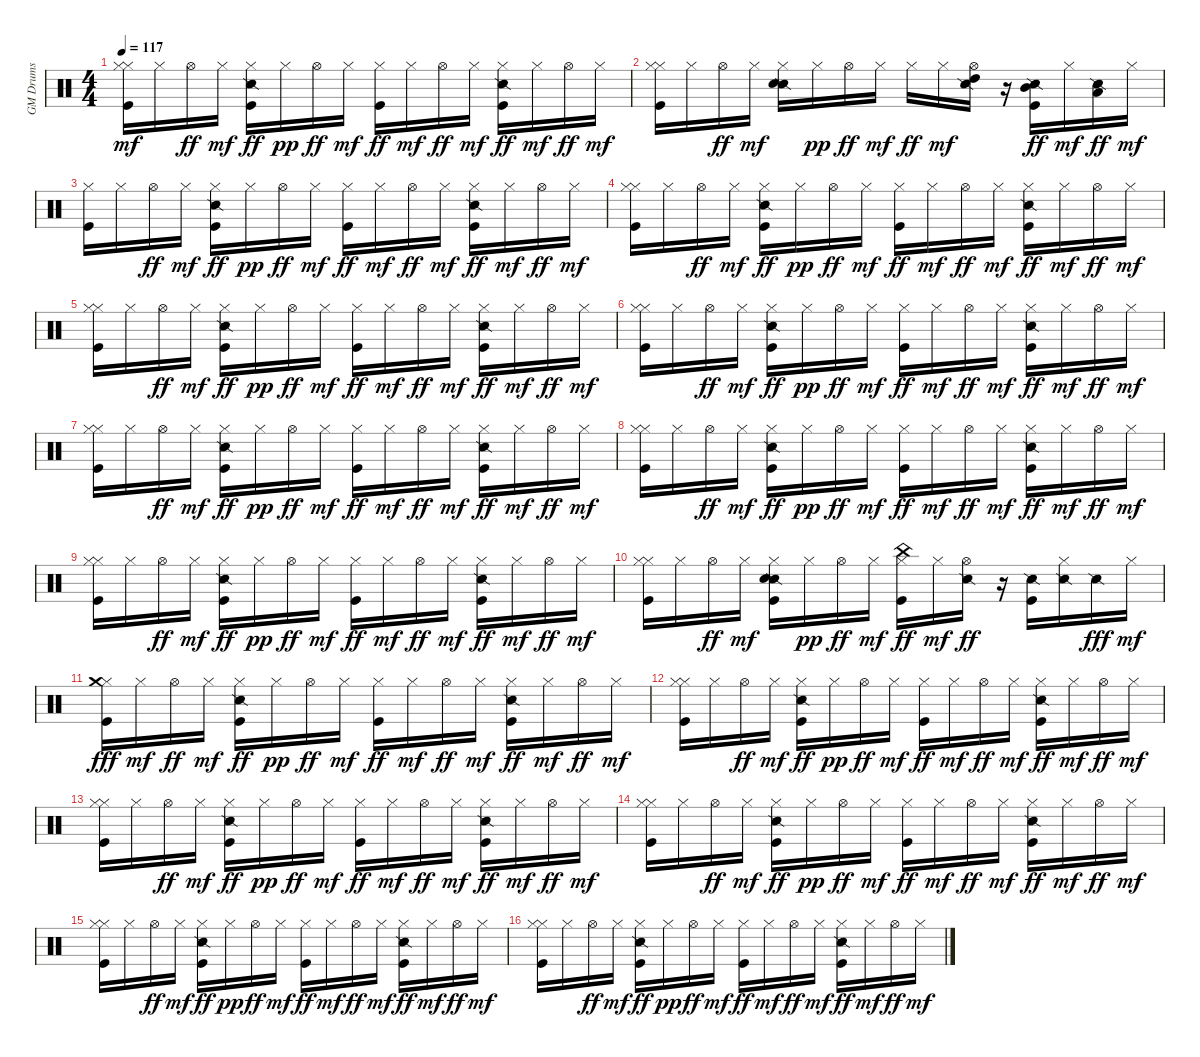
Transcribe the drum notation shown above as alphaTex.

\track ("GM Drums" "GM Drums") {instrument percussion}
\staff {score}
\articulation defaults
\ts (4 4)
\tempo 117
\clef neutral
\ks c
("Hi-Hat (closed)" "Kick (hit)" "Hi-Hat (closed)").16{dy mf} "Hi-Hat (closed)".16 "Hi-Hat (open)".16{dy ff} "Hi-Hat (closed)".16{dy mf} ("Kick (hit)" "Hi-Hat (closed)" "Snare (side stick) 2").16{dy ff} "Hi-Hat (closed)".16{dy pp} "Hi-Hat (open)".16{dy ff} "Hi-Hat (closed)".16{dy mf} ("Kick (hit)" "Hi-Hat (closed)").16{dy ff} "Hi-Hat (closed)".16{dy mf} "Hi-Hat (open)".16{dy ff} "Hi-Hat (closed)".16{dy mf} ("Kick (hit)" "Hi-Hat (closed)" "Snare (side stick) 2").16{dy ff} "Hi-Hat (closed)".16{dy mf} "Hi-Hat (open)".16{dy ff} "Hi-Hat (closed)".16{dy mf} |
("Hi-Hat (closed)" "Kick (hit)" "Hi-Hat (closed)").16 "Hi-Hat (closed)".16 "Hi-Hat (open)".16{dy ff} "Hi-Hat (closed)".16{dy mf} ("Hi-Hat (closed)" "Snare (side stick) 2" "Electric Snare (hit)").16 "Hi-Hat (closed)".16{dy pp} "Hi-Hat (open)".16{dy ff} "Hi-Hat (closed)".16{dy mf} "Hi-Hat (closed)".16{dy ff} "Hi-Hat (closed)".16{dy mf} ("Snare (side stick) 2" "Hi-Hat (open)" "High Tom (hit)").16 r.16 ("Kick (hit)" "Snare (side stick) 2" "Mid Tom (hit)").16{dy ff} "Hi-Hat (closed)".16{dy mf} ("Snare (side stick) 2" "Low Tom (hit)").16{dy ff} "Hi-Hat (closed)".16{dy mf} |
("Kick (hit)" "Hi-Hat (closed)").16 "Hi-Hat (closed)".16 "Hi-Hat (open)".16{dy ff} "Hi-Hat (closed)".16{dy mf} ("Kick (hit)" "Hi-Hat (closed)" "Snare (side stick) 2").16{dy ff} "Hi-Hat (closed)".16{dy pp} "Hi-Hat (open)".16{dy ff} "Hi-Hat (closed)".16{dy mf} ("Kick (hit)" "Hi-Hat (closed)").16{dy ff} "Hi-Hat (closed)".16{dy mf} "Hi-Hat (open)".16{dy ff} "Hi-Hat (closed)".16{dy mf} ("Kick (hit)" "Hi-Hat (closed)" "Snare (side stick) 2").16{dy ff} "Hi-Hat (closed)".16{dy mf} "Hi-Hat (open)".16{dy ff} "Hi-Hat (closed)".16{dy mf} |
("Hi-Hat (closed)" "Kick (hit)" "Hi-Hat (closed)").16 "Hi-Hat (closed)".16 "Hi-Hat (open)".16{dy ff} "Hi-Hat (closed)".16{dy mf} ("Kick (hit)" "Hi-Hat (closed)" "Snare (side stick) 2").16{dy ff} "Hi-Hat (closed)".16{dy pp} "Hi-Hat (open)".16{dy ff} "Hi-Hat (closed)".16{dy mf} ("Kick (hit)" "Hi-Hat (closed)").16{dy ff} "Hi-Hat (closed)".16{dy mf} "Hi-Hat (open)".16{dy ff} "Hi-Hat (closed)".16{dy mf} ("Kick (hit)" "Hi-Hat (closed)" "Snare (side stick) 2").16{dy ff} "Hi-Hat (closed)".16{dy mf} "Hi-Hat (open)".16{dy ff} "Hi-Hat (closed)".16{dy mf} |
("Hi-Hat (closed)" "Kick (hit)" "Hi-Hat (closed)").16 "Hi-Hat (closed)".16 "Hi-Hat (open)".16{dy ff} "Hi-Hat (closed)".16{dy mf} ("Kick (hit)" "Hi-Hat (closed)" "Snare (side stick) 2").16{dy ff} "Hi-Hat (closed)".16{dy pp} "Hi-Hat (open)".16{dy ff} "Hi-Hat (closed)".16{dy mf} ("Kick (hit)" "Hi-Hat (closed)").16{dy ff} "Hi-Hat (closed)".16{dy mf} "Hi-Hat (open)".16{dy ff} "Hi-Hat (closed)".16{dy mf} ("Kick (hit)" "Hi-Hat (closed)" "Snare (side stick) 2").16{dy ff} "Hi-Hat (closed)".16{dy mf} "Hi-Hat (open)".16{dy ff} "Hi-Hat (closed)".16{dy mf} |
("Hi-Hat (closed)" "Kick (hit)" "Hi-Hat (closed)").16 "Hi-Hat (closed)".16 "Hi-Hat (open)".16{dy ff} "Hi-Hat (closed)".16{dy mf} ("Kick (hit)" "Hi-Hat (closed)" "Snare (side stick) 2").16{dy ff} "Hi-Hat (closed)".16{dy pp} "Hi-Hat (open)".16{dy ff} "Hi-Hat (closed)".16{dy mf} ("Kick (hit)" "Hi-Hat (closed)").16{dy ff} "Hi-Hat (closed)".16{dy mf} "Hi-Hat (open)".16{dy ff} "Hi-Hat (closed)".16{dy mf} ("Kick (hit)" "Hi-Hat (closed)" "Snare (side stick) 2").16{dy ff} "Hi-Hat (closed)".16{dy mf} "Hi-Hat (open)".16{dy ff} "Hi-Hat (closed)".16{dy mf} |
("Hi-Hat (closed)" "Kick (hit)" "Hi-Hat (closed)").16 "Hi-Hat (closed)".16 "Hi-Hat (open)".16{dy ff} "Hi-Hat (closed)".16{dy mf} ("Kick (hit)" "Hi-Hat (closed)" "Snare (side stick) 2").16{dy ff} "Hi-Hat (closed)".16{dy pp} "Hi-Hat (open)".16{dy ff} "Hi-Hat (closed)".16{dy mf} ("Kick (hit)" "Hi-Hat (closed)").16{dy ff} "Hi-Hat (closed)".16{dy mf} "Hi-Hat (open)".16{dy ff} "Hi-Hat (closed)".16{dy mf} ("Kick (hit)" "Hi-Hat (closed)" "Snare (side stick) 2").16{dy ff} "Hi-Hat (closed)".16{dy mf} "Hi-Hat (open)".16{dy ff} "Hi-Hat (closed)".16{dy mf} |
("Hi-Hat (closed)" "Kick (hit)" "Hi-Hat (closed)").16 "Hi-Hat (closed)".16 "Hi-Hat (open)".16{dy ff} "Hi-Hat (closed)".16{dy mf} ("Kick (hit)" "Hi-Hat (closed)" "Snare (side stick) 2").16{dy ff} "Hi-Hat (closed)".16{dy pp} "Hi-Hat (open)".16{dy ff} "Hi-Hat (closed)".16{dy mf} ("Kick (hit)" "Hi-Hat (closed)").16{dy ff} "Hi-Hat (closed)".16{dy mf} "Hi-Hat (open)".16{dy ff} "Hi-Hat (closed)".16{dy mf} ("Kick (hit)" "Hi-Hat (closed)" "Snare (side stick) 2").16{dy ff} "Hi-Hat (closed)".16{dy mf} "Hi-Hat (open)".16{dy ff} "Hi-Hat (closed)".16{dy mf} |
("Hi-Hat (closed)" "Kick (hit)" "Hi-Hat (closed)").16 "Hi-Hat (closed)".16 "Hi-Hat (open)".16{dy ff} "Hi-Hat (closed)".16{dy mf} ("Kick (hit)" "Hi-Hat (closed)" "Snare (side stick) 2").16{dy ff} "Hi-Hat (closed)".16{dy pp} "Hi-Hat (open)".16{dy ff} "Hi-Hat (closed)".16{dy mf} ("Kick (hit)" "Hi-Hat (closed)").16{dy ff} "Hi-Hat (closed)".16{dy mf} "Hi-Hat (open)".16{dy ff} "Hi-Hat (closed)".16{dy mf} ("Kick (hit)" "Hi-Hat (closed)" "Snare (side stick) 2").16{dy ff} "Hi-Hat (closed)".16{dy mf} "Hi-Hat (open)".16{dy ff} "Hi-Hat (closed)".16{dy mf} |
("Hi-Hat (closed)" "Kick (hit)" "Hi-Hat (closed)").16 "Hi-Hat (closed)".16 "Hi-Hat (open)".16{dy ff} "Hi-Hat (closed)".16{dy mf} ("Hi-Hat (closed)" "Snare (side stick) 2" "Kick (hit)" "Electric Snare (hit)").16 "Hi-Hat (closed)".16{dy pp} "Hi-Hat (open)".16{dy ff} "Hi-Hat (closed)".16{dy mf} ("Hi-Hat (closed)" "Kick (hit)" "China (hit)").16{dy ff} "Hi-Hat (closed)".16{dy mf} ("Snare (side stick) 2" "Hi-Hat (open)").16{dy ff} r.16 ("Kick (hit)" "Snare (side stick) 2").16 ("Hi-Hat (closed)" "Snare (side stick) 2").16 "Snare (side stick) 2".16{dy fff} "Hi-Hat (closed)".16{dy mf} |
("Kick (hit)" "Hi-Hat (closed)" "Crash medium (hit)").16{dy fff} "Hi-Hat (closed)".16{dy mf} "Hi-Hat (open)".16{dy ff} "Hi-Hat (closed)".16{dy mf} ("Kick (hit)" "Hi-Hat (closed)" "Snare (side stick) 2").16{dy ff} "Hi-Hat (closed)".16{dy pp} "Hi-Hat (open)".16{dy ff} "Hi-Hat (closed)".16{dy mf} ("Kick (hit)" "Hi-Hat (closed)").16{dy ff} "Hi-Hat (closed)".16{dy mf} "Hi-Hat (open)".16{dy ff} "Hi-Hat (closed)".16{dy mf} ("Kick (hit)" "Hi-Hat (closed)" "Snare (side stick) 2").16{dy ff} "Hi-Hat (closed)".16{dy mf} "Hi-Hat (open)".16{dy ff} "Hi-Hat (closed)".16{dy mf} |
("Hi-Hat (closed)" "Kick (hit)" "Hi-Hat (closed)").16 "Hi-Hat (closed)".16 "Hi-Hat (open)".16{dy ff} "Hi-Hat (closed)".16{dy mf} ("Kick (hit)" "Hi-Hat (closed)" "Snare (side stick) 2").16{dy ff} "Hi-Hat (closed)".16{dy pp} "Hi-Hat (open)".16{dy ff} "Hi-Hat (closed)".16{dy mf} ("Kick (hit)" "Hi-Hat (closed)").16{dy ff} "Hi-Hat (closed)".16{dy mf} "Hi-Hat (open)".16{dy ff} "Hi-Hat (closed)".16{dy mf} ("Kick (hit)" "Hi-Hat (closed)" "Snare (side stick) 2").16{dy ff} "Hi-Hat (closed)".16{dy mf} "Hi-Hat (open)".16{dy ff} "Hi-Hat (closed)".16{dy mf} |
("Hi-Hat (closed)" "Kick (hit)" "Hi-Hat (closed)").16 "Hi-Hat (closed)".16 "Hi-Hat (open)".16{dy ff} "Hi-Hat (closed)".16{dy mf} ("Kick (hit)" "Hi-Hat (closed)" "Snare (side stick) 2").16{dy ff} "Hi-Hat (closed)".16{dy pp} "Hi-Hat (open)".16{dy ff} "Hi-Hat (closed)".16{dy mf} ("Kick (hit)" "Hi-Hat (closed)").16{dy ff} "Hi-Hat (closed)".16{dy mf} "Hi-Hat (open)".16{dy ff} "Hi-Hat (closed)".16{dy mf} ("Kick (hit)" "Hi-Hat (closed)" "Snare (side stick) 2").16{dy ff} "Hi-Hat (closed)".16{dy mf} "Hi-Hat (open)".16{dy ff} "Hi-Hat (closed)".16{dy mf} |
("Hi-Hat (closed)" "Kick (hit)" "Hi-Hat (closed)").16 "Hi-Hat (closed)".16 "Hi-Hat (open)".16{dy ff} "Hi-Hat (closed)".16{dy mf} ("Kick (hit)" "Hi-Hat (closed)" "Snare (side stick) 2").16{dy ff} "Hi-Hat (closed)".16{dy pp} "Hi-Hat (open)".16{dy ff} "Hi-Hat (closed)".16{dy mf} ("Kick (hit)" "Hi-Hat (closed)").16{dy ff} "Hi-Hat (closed)".16{dy mf} "Hi-Hat (open)".16{dy ff} "Hi-Hat (closed)".16{dy mf} ("Kick (hit)" "Hi-Hat (closed)" "Snare (side stick) 2").16{dy ff} "Hi-Hat (closed)".16{dy mf} "Hi-Hat (open)".16{dy ff} "Hi-Hat (closed)".16{dy mf} |
("Hi-Hat (closed)" "Kick (hit)" "Hi-Hat (closed)").16 "Hi-Hat (closed)".16 "Hi-Hat (open)".16{dy ff} "Hi-Hat (closed)".16{dy mf} ("Kick (hit)" "Hi-Hat (closed)" "Snare (side stick) 2").16{dy ff} "Hi-Hat (closed)".16{dy pp} "Hi-Hat (open)".16{dy ff} "Hi-Hat (closed)".16{dy mf} ("Kick (hit)" "Hi-Hat (closed)").16{dy ff} "Hi-Hat (closed)".16{dy mf} "Hi-Hat (open)".16{dy ff} "Hi-Hat (closed)".16{dy mf} ("Kick (hit)" "Hi-Hat (closed)" "Snare (side stick) 2").16{dy ff} "Hi-Hat (closed)".16{dy mf} "Hi-Hat (open)".16{dy ff} "Hi-Hat (closed)".16{dy mf} |
("Hi-Hat (closed)" "Kick (hit)" "Hi-Hat (closed)").16 "Hi-Hat (closed)".16 "Hi-Hat (open)".16{dy ff} "Hi-Hat (closed)".16{dy mf} ("Kick (hit)" "Hi-Hat (closed)" "Snare (side stick) 2").16{dy ff} "Hi-Hat (closed)".16{dy pp} "Hi-Hat (open)".16{dy ff} "Hi-Hat (closed)".16{dy mf} ("Kick (hit)" "Hi-Hat (closed)").16{dy ff} "Hi-Hat (closed)".16{dy mf} "Hi-Hat (open)".16{dy ff} "Hi-Hat (closed)".16{dy mf} ("Kick (hit)" "Hi-Hat (closed)" "Snare (side stick) 2").16{dy ff} "Hi-Hat (closed)".16{dy mf} "Hi-Hat (open)".16{dy ff} "Hi-Hat (closed)".16{dy mf}
